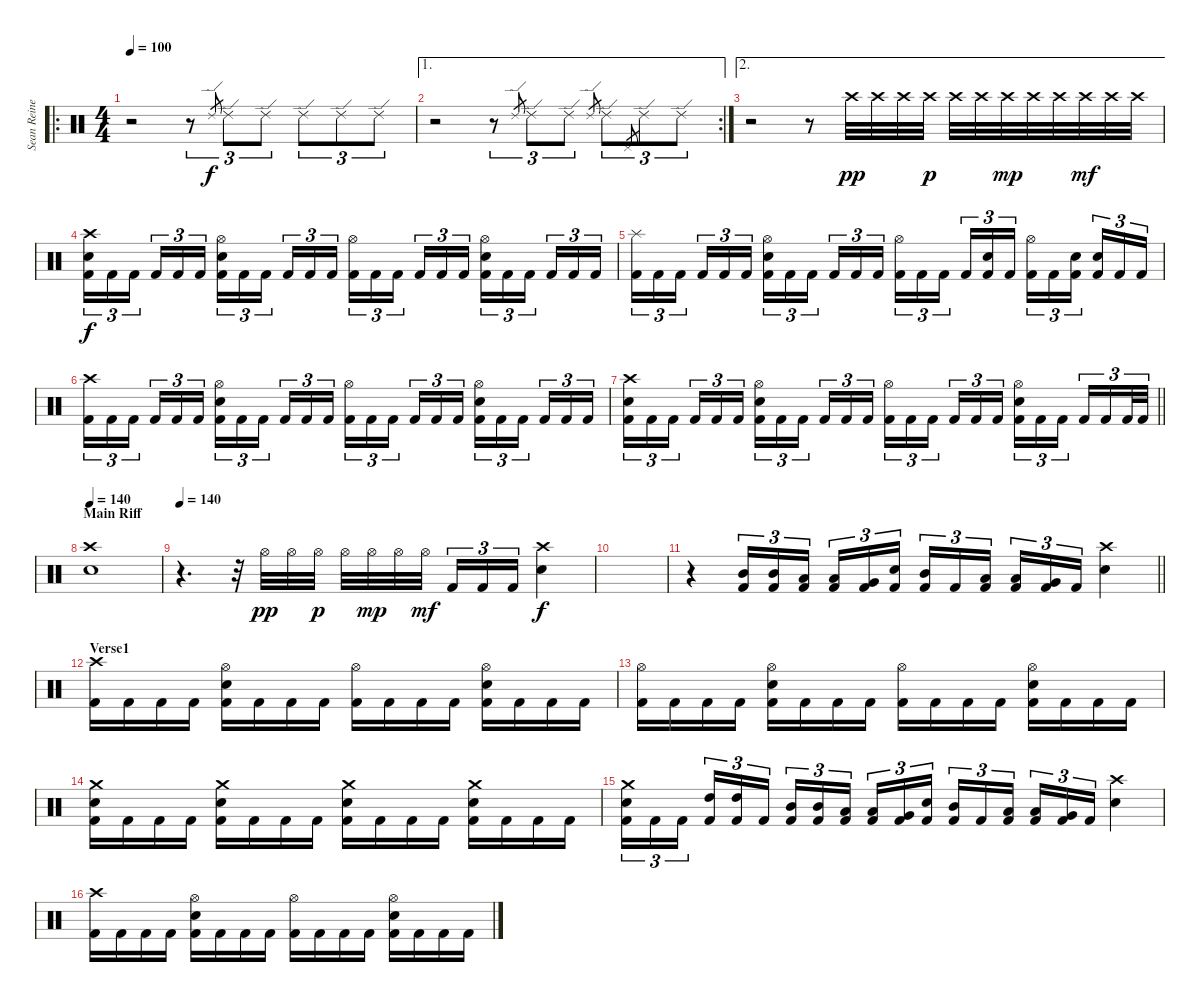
\track ("Sean Reinert" "Sean Reine") {instrument percussion}
\staff {score}
\articulation defaults
\ro
\ts (4 4)
\tempo 100
\clef neutral
\ks c
r.2{dy f} r.8{tu (3 2)} "Ride (edge) 2".8{gr} "Ride (edge) 2".8{tu (3 2)} "Ride (edge) 2".8{tu (3 2)} "Ride (edge) 2".8{tu (3 2)} "Ride (edge) 2".8{tu (3 2)} "Ride (edge) 2".8{tu (3 2)} |
\ae 1
\rc 2
r.2 r.8{tu (3 2)} "Ride (edge) 2".8{gr} "Ride (edge) 2".8{tu (3 2)} "Ride (edge) 2".8{tu (3 2)} "Ride (edge) 2".8{gr} "Ride (edge) 2".8{tu (3 2)} "Pedal Hi-Hat (hit)".8{gr} "Ride (edge) 2".8{tu (3 2)} "Ride (edge) 2".8{tu (3 2)} |
\ae 2
r.2 r.8 "Crash high (hit)".32{dy pp} "Crash high (hit)".32 "Crash high (hit)".32 "Crash high (hit)".32{dy p} "Crash high (hit)".32 "Crash high (hit)".32 "Crash high (hit)".32{dy mp} "Crash high (hit)".32 "Crash high (hit)".32 "Crash high (hit)".32{dy mf} "Crash high (hit)".32 "Crash high (hit)".32 |
("Crash high (hit)" "Electric Snare (hit)" "Kick (hit) 2").16{tu (3 2) dy f} "Kick (hit) 2".16{tu (3 2)} "Kick (hit) 2".16{tu (3 2) beam splitsecondary} "Kick (hit) 2".16{tu (3 2)} "Kick (hit) 2".16{tu (3 2)} "Kick (hit) 2".16{tu (3 2)} ("Hi-Hat (open)" "Electric Snare (hit)" "Kick (hit) 2").16{tu (3 2)} "Kick (hit) 2".16{tu (3 2)} "Kick (hit) 2".16{tu (3 2) beam splitsecondary} "Kick (hit) 2".16{tu (3 2)} "Kick (hit) 2".16{tu (3 2)} "Kick (hit) 2".16{tu (3 2)} ("Hi-Hat (open)" "Kick (hit) 2").16{tu (3 2)} "Kick (hit) 2".16{tu (3 2)} "Kick (hit) 2".16{tu (3 2) beam splitsecondary} "Kick (hit) 2".16{tu (3 2)} "Kick (hit) 2".16{tu (3 2)} "Kick (hit) 2".16{tu (3 2)} ("Hi-Hat (open)" "Electric Snare (hit)" "Kick (hit) 2").16{tu (3 2)} "Kick (hit) 2".16{tu (3 2)} "Kick (hit) 2".16{tu (3 2) beam splitsecondary} "Kick (hit) 2".16{tu (3 2)} "Kick (hit) 2".16{tu (3 2)} "Kick (hit) 2".16{tu (3 2)} |
("Splash (hit)" "Kick (hit) 2").16{tu (3 2)} "Kick (hit) 2".16{tu (3 2)} "Kick (hit) 2".16{tu (3 2) beam splitsecondary} "Kick (hit) 2".16{tu (3 2)} "Kick (hit) 2".16{tu (3 2)} "Kick (hit) 2".16{tu (3 2)} ("Hi-Hat (open)" "Electric Snare (hit)" "Kick (hit) 2").16{tu (3 2)} "Kick (hit) 2".16{tu (3 2)} "Kick (hit) 2".16{tu (3 2) beam splitsecondary} "Kick (hit) 2".16{tu (3 2)} "Kick (hit) 2".16{tu (3 2)} "Kick (hit) 2".16{tu (3 2)} ("Hi-Hat (open)" "Kick (hit) 2").16{tu (3 2)} "Kick (hit) 2".16{tu (3 2)} "Kick (hit) 2".16{tu (3 2) beam splitsecondary} "Kick (hit) 2".16{tu (3 2)} ("Electric Snare (hit)" "Kick (hit) 2").16{tu (3 2)} "Kick (hit) 2".16{tu (3 2)} ("Hi-Hat (open)" "Kick (hit) 2").16{tu (3 2)} "Kick (hit) 2".16{tu (3 2)} ("Electric Snare (hit)" "Kick (hit) 2").16{tu (3 2) beam splitsecondary} ("Electric Snare (hit)" "Kick (hit) 2").16{tu (3 2)} "Kick (hit) 2".16{tu (3 2)} "Kick (hit) 2".16{tu (3 2)} |
("Crash high (hit)" "Kick (hit) 2").16{tu (3 2)} "Kick (hit) 2".16{tu (3 2)} "Kick (hit) 2".16{tu (3 2) beam splitsecondary} "Kick (hit) 2".16{tu (3 2)} "Kick (hit) 2".16{tu (3 2)} "Kick (hit) 2".16{tu (3 2)} ("Hi-Hat (open)" "Electric Snare (hit)" "Kick (hit) 2").16{tu (3 2)} "Kick (hit) 2".16{tu (3 2)} "Kick (hit) 2".16{tu (3 2) beam splitsecondary} "Kick (hit) 2".16{tu (3 2)} "Kick (hit) 2".16{tu (3 2)} "Kick (hit) 2".16{tu (3 2)} ("Hi-Hat (open)" "Kick (hit) 2").16{tu (3 2)} "Kick (hit) 2".16{tu (3 2)} "Kick (hit) 2".16{tu (3 2) beam splitsecondary} "Kick (hit) 2".16{tu (3 2)} "Kick (hit) 2".16{tu (3 2)} "Kick (hit) 2".16{tu (3 2)} ("Hi-Hat (open)" "Electric Snare (hit)" "Kick (hit) 2").16{tu (3 2)} "Kick (hit) 2".16{tu (3 2)} "Kick (hit) 2".16{tu (3 2) beam splitsecondary} "Kick (hit) 2".16{tu (3 2)} "Kick (hit) 2".16{tu (3 2)} "Kick (hit) 2".16{tu (3 2)} |
\barLineRight lightlight
("Crash high (hit)" "Electric Snare (hit)" "Kick (hit) 2").16{tu (3 2)} "Kick (hit) 2".16{tu (3 2)} "Kick (hit) 2".16{tu (3 2) beam splitsecondary} "Kick (hit) 2".16{tu (3 2)} "Kick (hit) 2".16{tu (3 2)} "Kick (hit) 2".16{tu (3 2)} ("Hi-Hat (open)" "Electric Snare (hit)" "Kick (hit) 2").16{tu (3 2)} "Kick (hit) 2".16{tu (3 2)} "Kick (hit) 2".16{tu (3 2) beam splitsecondary} "Kick (hit) 2".16{tu (3 2)} "Kick (hit) 2".16{tu (3 2)} "Kick (hit) 2".16{tu (3 2)} ("Hi-Hat (open)" "Kick (hit) 2").16{tu (3 2)} "Kick (hit) 2".16{tu (3 2)} "Kick (hit) 2".16{tu (3 2) beam splitsecondary} "Kick (hit) 2".16{tu (3 2)} "Kick (hit) 2".16{tu (3 2)} "Kick (hit) 2".16{tu (3 2)} ("Hi-Hat (open)" "Electric Snare (hit)" "Kick (hit) 2").16{tu (3 2)} "Kick (hit) 2".16{tu (3 2)} "Kick (hit) 2".16{tu (3 2) beam splitsecondary} "Kick (hit) 2".16{tu (3 2)} "Kick (hit) 2".16{tu (3 2)} "Kick (hit) 2".32{tu (3 2)} "Kick (hit) 2".32{tu (3 2)} |
\section ("" "Main Riff")
\tempo 140
("Crash high (hit)" "Electric Snare (hit)").1 |
\tempo 140
r.4{d} r.32 "Hi-Hat (open)".32{dy pp} "Hi-Hat (open)".32 "Hi-Hat (open)".32{dy p} "Hi-Hat (open)".32 "Hi-Hat (open)".32{dy mp} "Hi-Hat (open)".32 "Hi-Hat (open)".32{dy mf beam splitsecondary} "Kick (hit) 2".16{tu (3 2)} "Kick (hit) 2".16{tu (3 2)} "Kick (hit) 2".16{tu (3 2)} ("Crash high (hit)" "Electric Snare (hit)").4{dy f} |
|
\barLineRight lightlight
r.4 ("Mid Tom (hit)" "Kick (hit) 2").16{tu (3 2)} ("Mid Tom (hit)" "Kick (hit) 2").16{tu (3 2)} ("Low Tom (hit)" "Kick (hit) 2").16{tu (3 2) beam splitsecondary} ("Low Tom (hit)" "Kick (hit) 2").16{tu (3 2)} ("Very Low Tom (hit)" "Kick (hit) 2").16{tu (3 2)} ("Electric Snare (hit)" "Kick (hit) 2").16{tu (3 2)} ("Mid Tom (hit)" "Kick (hit) 2").16{tu (3 2)} "Kick (hit) 2".16{tu (3 2)} ("Low Tom (hit)" "Kick (hit) 2").16{tu (3 2) beam splitsecondary} ("Low Tom (hit)" "Kick (hit) 2").16{tu (3 2)} ("Very Low Tom (hit)" "Kick (hit) 2").16{tu (3 2)} "Kick (hit) 2".16{tu (3 2)} ("Crash high (hit)" "Electric Snare (hit)").4 |
\section ("" "Verse1")
("Crash high (hit)" "Kick (hit) 2").16 "Kick (hit) 2".16 "Kick (hit) 2".16 "Kick (hit) 2".16 ("Hi-Hat (open)" "Electric Snare (hit)" "Kick (hit) 2").16 "Kick (hit) 2".16 "Kick (hit) 2".16 "Kick (hit) 2".16 ("Hi-Hat (open)" "Kick (hit) 2").16 "Kick (hit) 2".16 "Kick (hit) 2".16 "Kick (hit) 2".16 ("Hi-Hat (open)" "Electric Snare (hit)" "Kick (hit) 2").16 "Kick (hit) 2".16 "Kick (hit) 2".16 "Kick (hit) 2".16 |
("Hi-Hat (open)" "Kick (hit) 2").16 "Kick (hit) 2".16 "Kick (hit) 2".16 "Kick (hit) 2".16 ("Hi-Hat (open)" "Electric Snare (hit)" "Kick (hit) 2").16 "Kick (hit) 2".16 "Kick (hit) 2".16 "Kick (hit) 2".16 ("Hi-Hat (open)" "Kick (hit) 2").16 "Kick (hit) 2".16 "Kick (hit) 2".16 "Kick (hit) 2".16 ("Hi-Hat (open)" "Electric Snare (hit)" "Kick (hit) 2").16 "Kick (hit) 2".16 "Kick (hit) 2".16 "Kick (hit) 2".16 |
("Crash medium (hit)" "Electric Snare (hit)" "Kick (hit) 2").16 "Kick (hit) 2".16 "Kick (hit) 2".16 "Kick (hit) 2".16 ("Crash medium (hit)" "Electric Snare (hit)" "Kick (hit) 2").16 "Kick (hit) 2".16 "Kick (hit) 2".16 "Kick (hit) 2".16 ("Crash medium (hit)" "Electric Snare (hit)" "Kick (hit) 2").16 "Kick (hit) 2".16 "Kick (hit) 2".16 "Kick (hit) 2".16 ("Crash medium (hit)" "Electric Snare (hit)" "Kick (hit) 2").16 "Kick (hit) 2".16 "Kick (hit) 2".16 "Kick (hit) 2".16 |
("Crash medium (hit)" "Electric Snare (hit)" "Kick (hit) 2").16{tu (3 2)} "Kick (hit) 2".16{tu (3 2)} "Kick (hit) 2".16{tu (3 2) beam splitsecondary} ("High Tom (hit)" "Kick (hit) 2").16{tu (3 2)} ("High Tom (hit)" "Kick (hit) 2").16{tu (3 2)} "Kick (hit) 2".16{tu (3 2)} ("Mid Tom (hit)" "Kick (hit) 2").16{tu (3 2)} ("Mid Tom (hit)" "Kick (hit) 2").16{tu (3 2)} ("Low Tom (hit)" "Kick (hit) 2").16{tu (3 2) beam splitsecondary} ("Low Tom (hit)" "Kick (hit) 2").16{tu (3 2)} ("Very Low Tom (hit)" "Kick (hit) 2").16{tu (3 2)} ("Electric Snare (hit)" "Kick (hit) 2").16{tu (3 2)} ("Mid Tom (hit)" "Kick (hit) 2").16{tu (3 2)} "Kick (hit) 2".16{tu (3 2)} ("Low Tom (hit)" "Kick (hit) 2").16{tu (3 2) beam splitsecondary} ("Low Tom (hit)" "Kick (hit) 2").16{tu (3 2)} ("Very Low Tom (hit)" "Kick (hit) 2").16{tu (3 2)} "Kick (hit) 2".16{tu (3 2)} ("Crash high (hit)" "Electric Snare (hit)").4 |
("Crash high (hit)" "Kick (hit) 2").16 "Kick (hit) 2".16 "Kick (hit) 2".16 "Kick (hit) 2".16 ("Hi-Hat (open)" "Electric Snare (hit)" "Kick (hit) 2").16 "Kick (hit) 2".16 "Kick (hit) 2".16 "Kick (hit) 2".16 ("Hi-Hat (open)" "Kick (hit) 2").16 "Kick (hit) 2".16 "Kick (hit) 2".16 "Kick (hit) 2".16 ("Hi-Hat (open)" "Electric Snare (hit)" "Kick (hit) 2").16 "Kick (hit) 2".16 "Kick (hit) 2".16 "Kick (hit) 2".16
